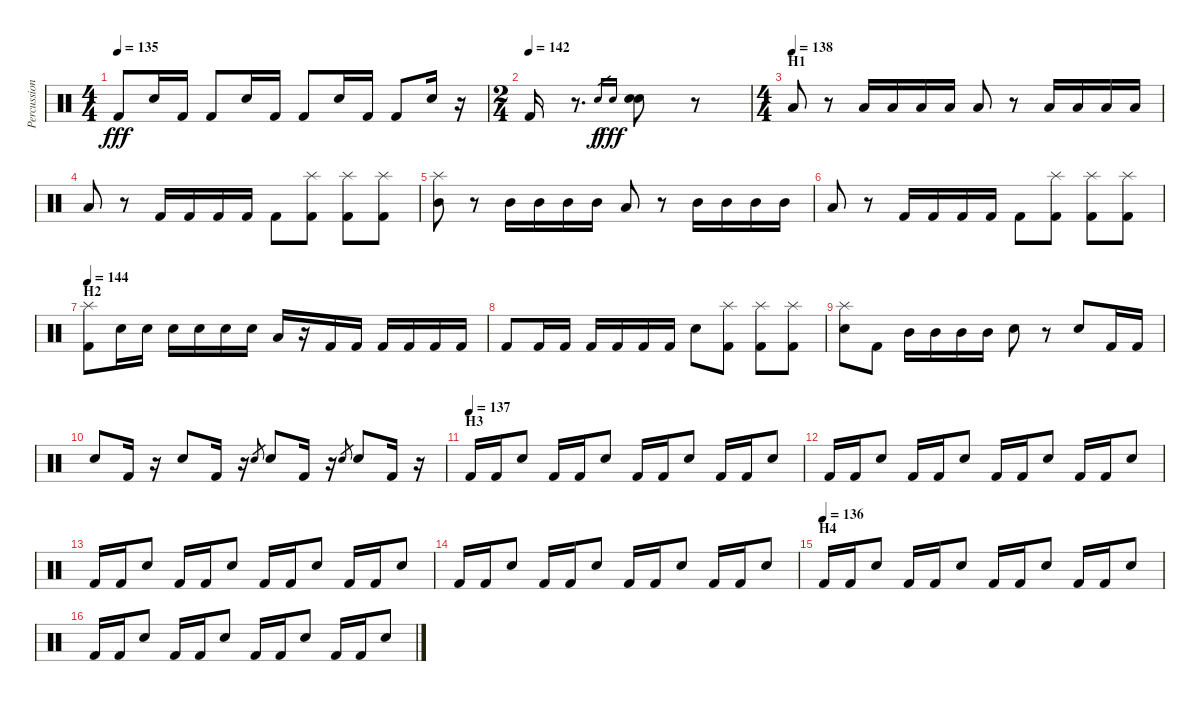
\track ("Percussion" "Percussion") {instrument percussion}
\staff {score}
\articulation defaults
\ts (4 4)
\tempo 135
\clef neutral
\ks c "Kick (hit) 2".8{dy fff} "Electric Snare (hit)".16 "Kick (hit) 2".16 "Kick (hit) 2".8 "Electric Snare (hit)".16 "Kick (hit) 2".16 "Kick (hit) 2".8 "Electric Snare (hit)".16 "Kick (hit) 2".16 "Kick (hit) 2".8 "Electric Snare (hit)".16
r.16 |
\ts (2 4)
\tempo (142)
"Kick (hit) 2".16 r.8{d} "Electric Snare (hit)".16{gr dy f} "Electric Snare (hit)".16{gr dy fff} ("Electric Snare (hit)" "Electric Snare (hit)").8 r.8 |
\ts (4 4)
\section ("" "H1")
\tempo (138)
"Low Tom (hit)".8 r.8 "Low Tom (hit)".16 "Low Tom (hit)".16 "Low Tom (hit)".16 "Low Tom (hit)".16 "Low Tom (hit)".8 r.8 "Low Tom (hit)".16 "Low Tom (hit)".16 "Low Tom (hit)".16 "Low Tom (hit)".16 |
"Low Tom (hit)".8 r.8 "Kick (hit) 2".16 "Kick (hit) 2".16 "Kick (hit) 2".16 "Kick (hit) 2".16 "Kick (hit) 2".8 ("Kick (hit) 2" "Splash (hit)").8 ("Kick (hit) 2" "Splash (hit)").8 ("Kick (hit) 2" "Splash (hit)").8 |
("Mid Tom (hit)" "Splash (hit)").8 r.8 "Mid Tom (hit)".16 "Mid Tom (hit)".16 "Mid Tom (hit)".16 "Mid Tom (hit)".16 "Low Tom (hit)".8 r.8 "Mid Tom (hit)".16 "Mid Tom (hit)".16 "Mid Tom (hit)".16 "Mid Tom (hit)".16 |
"Low Tom (hit)".8 r.8 "Kick (hit) 2".16 "Kick (hit) 2".16 "Kick (hit) 2".16 "Kick (hit) 2".16 "Kick (hit) 2".8 ("Kick (hit) 2" "Splash (hit)").8 ("Kick (hit) 2" "Splash (hit)").8 ("Kick (hit) 2" "Splash (hit)").8 |
\section ("" "H2")
\tempo 144
("Kick (hit) 2" "Splash (hit)").8 "Electric Snare (hit)".16 "Electric Snare (hit)".16 "Electric Snare (hit)".16 "Electric Snare (hit)".16 "Electric Snare (hit)".16 "Electric Snare (hit)".16 "Low Tom (hit)".16 r.16 "Kick (hit) 2".16 "Kick (hit) 2".16 "Kick (hit) 2".16 "Kick (hit) 2".16 "Kick (hit) 2".16 "Kick (hit) 2".16 |
"Kick (hit) 2".8 "Kick (hit) 2".16 "Kick (hit) 2".16 "Kick (hit) 2".16 "Kick (hit) 2".16 "Kick (hit) 2".16 "Kick (hit) 2".16 "Electric Snare (hit)".8 ("Kick (hit) 2" "Splash (hit)").8 ("Kick (hit) 2" "Splash (hit)").8 ("Kick (hit) 2" "Splash (hit)").8 |
("Electric Snare (hit)" "Splash (hit)").8 "Kick (hit) 2".8 "Mid Tom (hit)".16 "Mid Tom (hit)".16 "Mid Tom (hit)".16 "Mid Tom (hit)".16 "Electric Snare (hit)".8 r.8 "Electric Snare (hit)".8 "Kick (hit) 2".16 "Kick (hit) 2".16 |
"Electric Snare (hit)".8 "Kick (hit) 2".16 r.16 "Electric Snare (hit)".8 "Kick (hit) 2".16 r.16 "Electric Snare (hit)".8{gr} "Electric Snare (hit)".8 "Kick (hit) 2".16 r.16 "Electric Snare (hit)".8{gr} "Electric Snare (hit)".8 "Kick (hit) 2".16 r.16 |
\section ("" "H3")
\tempo (137)
"Kick (hit) 2".16 "Kick (hit) 2".16 "Electric Snare (hit)".8 "Kick (hit) 2".16 "Kick (hit) 2".16 "Electric Snare (hit)".8 "Kick (hit) 2".16 "Kick (hit) 2".16 "Electric Snare (hit)".8 "Kick (hit) 2".16 "Kick (hit) 2".16 "Electric Snare (hit)".8 |
"Kick (hit) 2".16 "Kick (hit) 2".16 "Electric Snare (hit)".8 "Kick (hit) 2".16 "Kick (hit) 2".16 "Electric Snare (hit)".8 "Kick (hit) 2".16 "Kick (hit) 2".16 "Electric Snare (hit)".8 "Kick (hit) 2".16 "Kick (hit) 2".16 "Electric Snare (hit)".8 |
"Kick (hit) 2".16 "Kick (hit) 2".16 "Electric Snare (hit)".8 "Kick (hit) 2".16 "Kick (hit) 2".16 "Electric Snare (hit)".8 "Kick (hit) 2".16 "Kick (hit) 2".16 "Electric Snare (hit)".8 "Kick (hit) 2".16 "Kick (hit) 2".16 "Electric Snare (hit)".8 |
"Kick (hit) 2".16 "Kick (hit) 2".16 "Electric Snare (hit)".8 "Kick (hit) 2".16 "Kick (hit) 2".16 "Electric Snare (hit)".8 "Kick (hit) 2".16 "Kick (hit) 2".16 "Electric Snare (hit)".8 "Kick (hit) 2".16 "Kick (hit) 2".16 "Electric Snare (hit)".8 |
\section ("" "H4")
\tempo (136)
"Kick (hit) 2".16 "Kick (hit) 2".16 "Electric Snare (hit)".8 "Kick (hit) 2".16 "Kick (hit) 2".16 "Electric Snare (hit)".8 "Kick (hit) 2".16 "Kick (hit) 2".16 "Electric Snare (hit)".8 "Kick (hit) 2".16 "Kick (hit) 2".16 "Electric Snare (hit)".8 |
"Kick (hit) 2".16 "Kick (hit) 2".16 "Electric Snare (hit)".8 "Kick (hit) 2".16 "Kick (hit) 2".16 "Electric Snare (hit)".8 "Kick (hit) 2".16 "Kick (hit) 2".16 "Electric Snare (hit)".8 "Kick (hit) 2".16 "Kick (hit) 2".16 "Electric Snare (hit)".8
